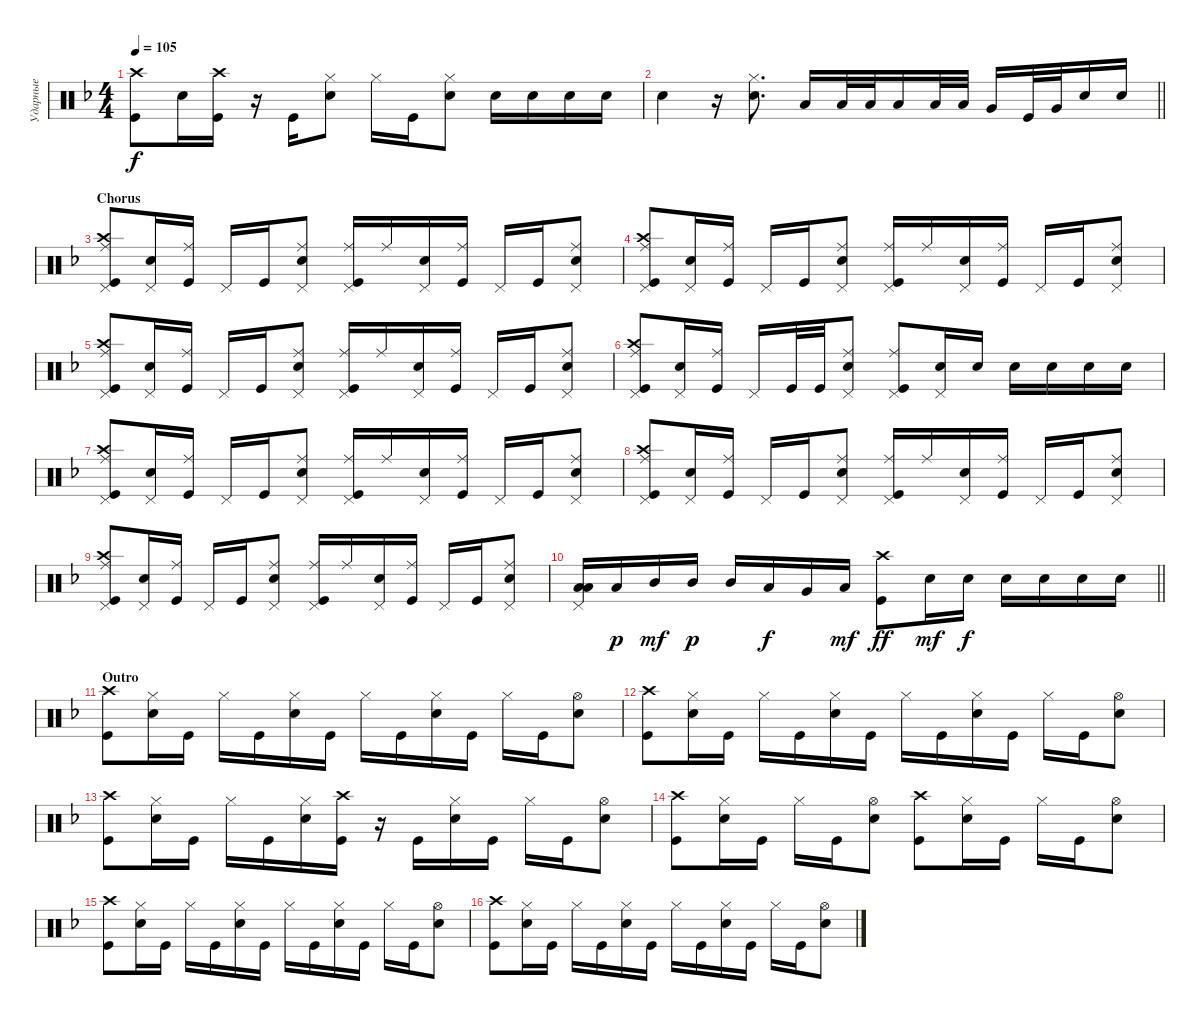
\track ("Ударные" "Ударные") {instrument percussion}
\staff {score}
\articulation defaults
\ts (4 4)
\tempo 105
\clef neutral
\ks dminor
("Kick (hit)" "Crash high (hit)").8{dy f} "Snare (hit) 2".16 ("Kick (hit)" "Crash high (hit)").16 r.16 "Kick (hit)".16 ("Snare (hit) 2" "Hi-Hat (closed)").8 "Hi-Hat (closed)".16 "Kick (hit)".16 ("Snare (hit) 2" "Hi-Hat (closed)").8 "Snare (hit) 2".16 "Snare (hit) 2".16 "Snare (hit) 2".16 "Snare (hit) 2".16 |
\barLineRight lightlight "Snare (hit) 2".4
r.16 ("Snare (hit) 2" "Hi-Hat (closed)").8{d} "Low Tom (hit)".16 "Low Floor Tom (hit)".32 "Low Floor Tom (hit)".32 "Low Floor Tom (hit)".16 "Low Floor Tom (hit)".32 "Low Floor Tom (hit)".32 "Very Low Tom (hit)".16 "Kick (hit)".32 "Very Low Tom (hit)".32 "Snare (hit) 2".16 "Snare (hit) 2".16 |
\section ("" "Chorus")
("Kick (hit)" "Crash high (hit)" "Ride (middle)" "Pedal Hi-Hat (hit)").8 ("Snare (hit) 2" "Pedal Hi-Hat (hit)").16 ("Ride (middle)" "Kick (hit)").16 "Pedal Hi-Hat (hit)".16 "Kick (hit)".16 ("Snare (hit) 2" "Ride (middle)" "Pedal Hi-Hat (hit)").8 ("Ride (middle)" "Kick (hit)" "Pedal Hi-Hat (hit)").16 "Ride (middle)".16 ("Snare (hit) 2" "Pedal Hi-Hat (hit)").16 ("Kick (hit)" "Ride (middle)").16 "Pedal Hi-Hat (hit)".16 "Kick (hit)".16 ("Snare (hit) 2" "Ride (middle)" "Pedal Hi-Hat (hit)").8 |
("Kick (hit)" "Crash high (hit)" "Ride (middle)" "Pedal Hi-Hat (hit)").8 ("Snare (hit) 2" "Pedal Hi-Hat (hit)").16 ("Ride (middle)" "Kick (hit)").16 "Pedal Hi-Hat (hit)".16 "Kick (hit)".16 ("Snare (hit) 2" "Ride (middle)" "Pedal Hi-Hat (hit)").8 ("Ride (middle)" "Kick (hit)" "Pedal Hi-Hat (hit)").16 "Ride (middle)".16 ("Snare (hit) 2" "Pedal Hi-Hat (hit)").16 ("Kick (hit)" "Ride (middle)").16 "Pedal Hi-Hat (hit)".16 "Kick (hit)".16 ("Snare (hit) 2" "Ride (middle)" "Pedal Hi-Hat (hit)").8 |
("Kick (hit)" "Crash high (hit)" "Ride (middle)" "Pedal Hi-Hat (hit)").8 ("Snare (hit) 2" "Pedal Hi-Hat (hit)").16 ("Ride (middle)" "Kick (hit)").16 "Pedal Hi-Hat (hit)".16 "Kick (hit)".16 ("Snare (hit) 2" "Ride (middle)" "Pedal Hi-Hat (hit)").8 ("Ride (middle)" "Kick (hit)" "Pedal Hi-Hat (hit)").16 "Ride (middle)".16 ("Snare (hit) 2" "Pedal Hi-Hat (hit)").16 ("Kick (hit)" "Ride (middle)").16 "Pedal Hi-Hat (hit)".16 "Kick (hit)".16 ("Snare (hit) 2" "Ride (middle)" "Pedal Hi-Hat (hit)").8 |
("Kick (hit)" "Crash high (hit)" "Ride (middle)" "Pedal Hi-Hat (hit)").8 ("Snare (hit) 2" "Pedal Hi-Hat (hit)").16 ("Ride (middle)" "Kick (hit)").16 "Pedal Hi-Hat (hit)".16 "Kick (hit)".32 "Kick (hit)".32 ("Snare (hit) 2" "Ride (middle)" "Pedal Hi-Hat (hit)").8 ("Ride (middle)" "Kick (hit)" "Pedal Hi-Hat (hit)").8 ("Snare (hit) 2" "Pedal Hi-Hat (hit)").16 "Snare (hit) 2".16 "Snare (hit) 2".16 "Snare (hit) 2".16 "Snare (hit) 2".16 "Snare (hit) 2".16 |
("Kick (hit)" "Crash high (hit)" "Ride (middle)" "Pedal Hi-Hat (hit)").8 ("Snare (hit) 2" "Pedal Hi-Hat (hit)").16 ("Ride (middle)" "Kick (hit)").16 "Pedal Hi-Hat (hit)".16 "Kick (hit)".16 ("Snare (hit) 2" "Ride (middle)" "Pedal Hi-Hat (hit)").8 ("Ride (middle)" "Kick (hit)" "Pedal Hi-Hat (hit)").16 "Ride (middle)".16 ("Snare (hit) 2" "Pedal Hi-Hat (hit)").16 ("Kick (hit)" "Ride (middle)").16 "Pedal Hi-Hat (hit)".16 "Kick (hit)".16 ("Snare (hit) 2" "Ride (middle)" "Pedal Hi-Hat (hit)").8 |
("Kick (hit)" "Crash high (hit)" "Ride (middle)" "Pedal Hi-Hat (hit)").8 ("Snare (hit) 2" "Pedal Hi-Hat (hit)").16 ("Ride (middle)" "Kick (hit)").16 "Pedal Hi-Hat (hit)".16 "Kick (hit)".16 ("Snare (hit) 2" "Ride (middle)" "Pedal Hi-Hat (hit)").8 ("Ride (middle)" "Kick (hit)" "Pedal Hi-Hat (hit)").16 "Ride (middle)".16 ("Snare (hit) 2" "Pedal Hi-Hat (hit)").16 ("Kick (hit)" "Ride (middle)").16 "Pedal Hi-Hat (hit)".16 "Kick (hit)".16 ("Snare (hit) 2" "Ride (middle)" "Pedal Hi-Hat (hit)").8 |
("Kick (hit)" "Crash high (hit)" "Ride (middle)" "Pedal Hi-Hat (hit)").8 ("Snare (hit) 2" "Pedal Hi-Hat (hit)").16 ("Ride (middle)" "Kick (hit)").16 "Pedal Hi-Hat (hit)".16 "Kick (hit)".16 ("Snare (hit) 2" "Ride (middle)" "Pedal Hi-Hat (hit)").8 ("Ride (middle)" "Kick (hit)" "Pedal Hi-Hat (hit)").16 "Ride (middle)".16 ("Snare (hit) 2" "Pedal Hi-Hat (hit)").16 ("Kick (hit)" "Ride (middle)").16 "Pedal Hi-Hat (hit)".16 "Kick (hit)".16 ("Snare (hit) 2" "Ride (middle)" "Pedal Hi-Hat (hit)").8 |
\barLineRight lightlight
("Low Tom (hit)" "Low Tom (hit)" "Pedal Hi-Hat (hit)").16{bd 240} "Low Tom (hit)".16{dy p} "Mid Tom (hit)".16{dy mf} "Mid Tom (hit)".16{dy p} "Mid Tom (hit)".16 "Low Tom (hit)".16{dy f} "Very Low Tom (hit)".16 "Low Floor Tom (hit)".16{dy mf} ("Kick (hit)" "Crash high (hit)").8{dy ff} "Snare (hit) 2".16{dy mf} "Snare (hit) 2".16{dy f} "Snare (hit) 2".16 "Snare (hit) 2".16 "Snare (hit) 2".16 "Snare (hit) 2".16 |
\section ("" "Outro")
("Kick (hit)" "Crash high (hit)").8 ("Snare (hit) 2" "Hi-Hat (closed)").16 "Kick (hit)".16 "Hi-Hat (closed)".16 "Kick (hit)".16 ("Snare (hit) 2" "Hi-Hat (closed)").16 "Kick (hit)".16 "Hi-Hat (closed)".16 "Kick (hit)".16 ("Snare (hit) 2" "Hi-Hat (closed)").16 "Kick (hit)".16 "Hi-Hat (closed)".16 "Kick (hit)".16 ("Snare (hit) 2" "Hi-Hat (open)").8 |
("Kick (hit)" "Crash high (hit)").8 ("Snare (hit) 2" "Hi-Hat (closed)").16 "Kick (hit)".16 "Hi-Hat (closed)".16 "Kick (hit)".16 ("Snare (hit) 2" "Hi-Hat (closed)").16 "Kick (hit)".16 "Hi-Hat (closed)".16 "Kick (hit)".16 ("Snare (hit) 2" "Hi-Hat (closed)").16 "Kick (hit)".16 "Hi-Hat (closed)".16 "Kick (hit)".16 ("Snare (hit) 2" "Hi-Hat (open)").8 |
("Kick (hit)" "Crash high (hit)").8 ("Snare (hit) 2" "Hi-Hat (closed)").16 "Kick (hit)".16 "Hi-Hat (closed)".16 "Kick (hit)".16 ("Snare (hit) 2" "Hi-Hat (closed)").16 ("Kick (hit)" "Crash high (hit)").16 r.16 "Kick (hit)".16 ("Snare (hit) 2" "Hi-Hat (closed)").16 "Kick (hit)".16 "Hi-Hat (closed)".16 "Kick (hit)".16 ("Snare (hit) 2" "Hi-Hat (open)").8 |
("Kick (hit)" "Crash high (hit)").8 ("Snare (hit) 2" "Hi-Hat (closed)").16 "Kick (hit)".16 "Hi-Hat (closed)".16 "Kick (hit)".16 ("Snare (hit) 2" "Hi-Hat (open)").8 ("Kick (hit)" "Crash high (hit)").8 ("Snare (hit) 2" "Hi-Hat (closed)").16 "Kick (hit)".16 "Hi-Hat (closed)".16 "Kick (hit)".16 ("Snare (hit) 2" "Hi-Hat (open)").8 |
("Kick (hit)" "Crash high (hit)").8 ("Snare (hit) 2" "Hi-Hat (closed)").16 "Kick (hit)".16 "Hi-Hat (closed)".16 "Kick (hit)".16 ("Snare (hit) 2" "Hi-Hat (closed)").16 "Kick (hit)".16 "Hi-Hat (closed)".16 "Kick (hit)".16 ("Snare (hit) 2" "Hi-Hat (closed)").16 "Kick (hit)".16 "Hi-Hat (closed)".16 "Kick (hit)".16 ("Snare (hit) 2" "Hi-Hat (open)").8 |
("Kick (hit)" "Crash high (hit)").8 ("Snare (hit) 2" "Hi-Hat (closed)").16 "Kick (hit)".16 "Hi-Hat (closed)".16 "Kick (hit)".16 ("Snare (hit) 2" "Hi-Hat (closed)").16 "Kick (hit)".16 "Hi-Hat (closed)".16 "Kick (hit)".16 ("Snare (hit) 2" "Hi-Hat (closed)").16 "Kick (hit)".16 "Hi-Hat (closed)".16 "Kick (hit)".16 ("Snare (hit) 2" "Hi-Hat (open)").8
